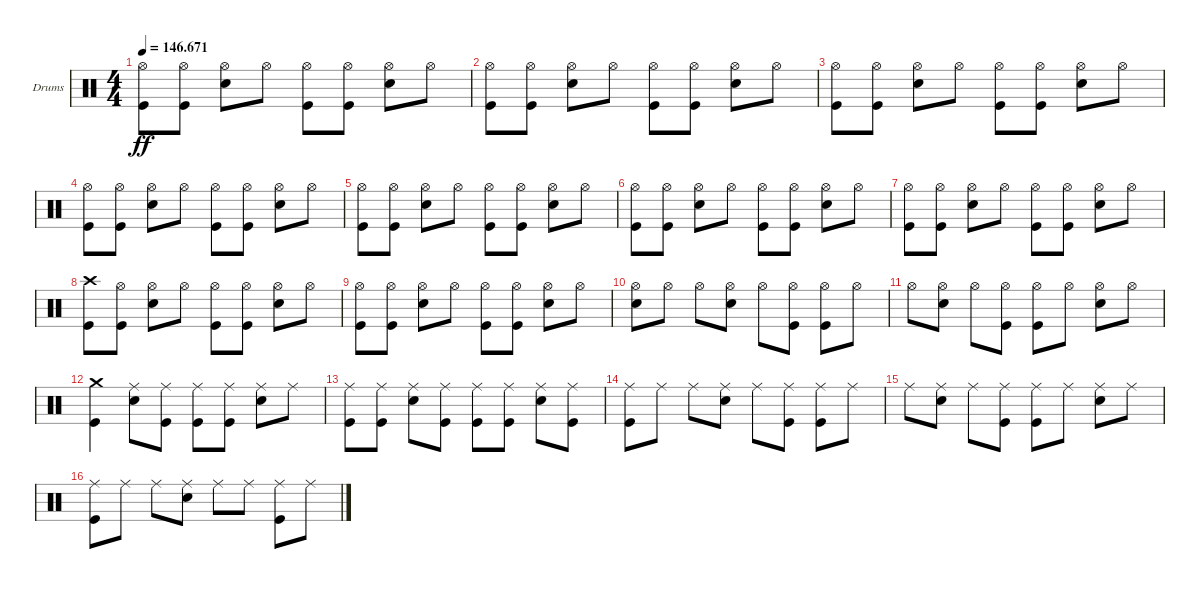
\bracketExtendMode groupsimilarinstruments
\firstSystemTrackNameOrientation horizontal
\otherSystemsTrackNameOrientation horizontal
\track ("Drumkit" "Drums") {instrument percussion}
\staff {score}
\articulation defaults
\ts (4 4)
\tempo
146.671
\accidentals auto
\clef neutral
\ottava regular
\simile none
\ks c
("Hi-Hat (open)" "Kick (hit)").8{dy ff} ("Hi-Hat (open)" "Kick (hit)").8 ("Hi-Hat (open)" "Snare (hit) 2").8 "Hi-Hat (open)".8 ("Hi-Hat (open)" "Kick (hit)").8 ("Hi-Hat (open)" "Kick (hit)").8 ("Hi-Hat (open)" "Snare (hit) 2").8 "Hi-Hat (open)".8 |
("Hi-Hat (open)" "Kick (hit)").8 ("Hi-Hat (open)" "Kick (hit)").8 ("Hi-Hat (open)" "Snare (hit) 2").8 "Hi-Hat (open)".8 ("Hi-Hat (open)" "Kick (hit)").8 ("Hi-Hat (open)" "Kick (hit)").8 ("Hi-Hat (open)" "Snare (hit) 2").8 "Hi-Hat (open)".8 |
("Hi-Hat (open)" "Kick (hit)").8 ("Hi-Hat (open)" "Kick (hit)").8 ("Hi-Hat (open)" "Snare (hit) 2").8 "Hi-Hat (open)".8 ("Hi-Hat (open)" "Kick (hit)").8 ("Hi-Hat (open)" "Kick (hit)").8 ("Hi-Hat (open)" "Snare (hit) 2").8 "Hi-Hat (open)".8 |
("Hi-Hat (open)" "Kick (hit)").8 ("Hi-Hat (open)" "Kick (hit)").8 ("Hi-Hat (open)" "Snare (hit) 2").8 "Hi-Hat (open)".8 ("Hi-Hat (open)" "Kick (hit)").8 ("Hi-Hat (open)" "Kick (hit)").8 ("Hi-Hat (open)" "Snare (hit) 2").8 "Hi-Hat (open)".8 |
("Hi-Hat (open)" "Kick (hit)").8 ("Hi-Hat (open)" "Kick (hit)").8 ("Hi-Hat (open)" "Snare (hit) 2").8 "Hi-Hat (open)".8 ("Hi-Hat (open)" "Kick (hit)").8 ("Hi-Hat (open)" "Kick (hit)").8 ("Hi-Hat (open)" "Snare (hit) 2").8 "Hi-Hat (open)".8 |
("Hi-Hat (open)" "Kick (hit)").8 ("Hi-Hat (open)" "Kick (hit)").8 ("Hi-Hat (open)" "Snare (hit) 2").8 "Hi-Hat (open)".8 ("Hi-Hat (open)" "Kick (hit)").8 ("Hi-Hat (open)" "Kick (hit)").8 ("Hi-Hat (open)" "Snare (hit) 2").8 "Hi-Hat (open)".8 |
("Hi-Hat (open)" "Kick (hit)").8 ("Hi-Hat (open)" "Kick (hit)").8 ("Hi-Hat (open)" "Snare (hit) 2").8 "Hi-Hat (open)".8 ("Hi-Hat (open)" "Kick (hit)").8 ("Hi-Hat (open)" "Kick (hit)").8 ("Hi-Hat (open)" "Snare (hit) 2").8 "Hi-Hat (open)".8 |
("Kick (hit)" "Crash high (hit)").8 ("Hi-Hat (open)" "Kick (hit)").8 ("Hi-Hat (open)" "Snare (hit) 2").8 "Hi-Hat (open)".8 ("Hi-Hat (open)" "Kick (hit)").8 ("Hi-Hat (open)" "Kick (hit)").8 ("Hi-Hat (open)" "Snare (hit) 2").8 "Hi-Hat (open)".8 |
("Hi-Hat (open)" "Kick (hit)").8 ("Hi-Hat (open)" "Kick (hit)").8 ("Hi-Hat (open)" "Snare (hit) 2").8 "Hi-Hat (open)".8 ("Hi-Hat (open)" "Kick (hit)").8 ("Hi-Hat (open)" "Kick (hit)").8 ("Hi-Hat (open)" "Snare (hit) 2").8 "Hi-Hat (open)".8 |
("Hi-Hat (open)" "Snare (hit) 2").8 "Hi-Hat (open)".8 "Hi-Hat (open)".8 ("Hi-Hat (open)" "Snare (hit) 2").8 "Hi-Hat (open)".8 ("Hi-Hat (open)" "Kick (hit)").8 ("Hi-Hat (open)" "Kick (hit)").8 "Hi-Hat (open)".8 |
"Hi-Hat (open)".8 ("Hi-Hat (open)" "Snare (hit) 2").8 "Hi-Hat (open)".8 ("Hi-Hat (open)" "Kick (hit)").8 ("Hi-Hat (open)" "Kick (hit)").8 "Hi-Hat (open)".8 ("Hi-Hat (open)" "Snare (hit) 2").8 "Hi-Hat (open)".8 |
("Crash medium (hit)" "Kick (hit)").4 ("Ride (middle)" "Snare (hit) 2").8 ("Ride (middle)" "Kick (hit)").8 ("Ride (middle)" "Kick (hit)").8 ("Ride (middle)" "Kick (hit)").8 ("Ride (middle)" "Snare (hit) 2").8 "Ride (middle)".8 |
("Ride (middle)" "Kick (hit)").8 ("Ride (middle)" "Kick (hit)").8 ("Ride (middle)" "Snare (hit) 2").8 ("Ride (middle)" "Kick (hit)").8 ("Ride (middle)" "Kick (hit)").8 ("Ride (middle)" "Kick (hit)").8 ("Ride (middle)" "Snare (hit) 2").8 ("Ride (middle)" "Kick (hit)").8 |
("Ride (middle)" "Kick (hit)").8 "Ride (middle)".8 "Ride (middle)".8 ("Ride (middle)" "Snare (hit) 2").8 "Ride (middle)".8 ("Ride (middle)" "Kick (hit)").8 ("Ride (middle)" "Kick (hit)").8 "Ride (middle)".8 |
"Ride (middle)".8 ("Ride (middle)" "Snare (hit) 2").8 "Ride (middle)".8 ("Ride (middle)" "Kick (hit)").8 ("Ride (middle)" "Kick (hit)").8 "Ride (middle)".8 ("Ride (middle)" "Snare (hit) 2").8 "Ride (middle)".8 |
("Ride (middle)" "Kick (hit)").8 "Ride (middle)".8 "Ride (middle)".8 ("Ride (middle)" "Snare (hit) 2").8 "Ride (middle)".8 "Ride (middle)".8 ("Ride (middle)" "Kick (hit)").8 "Ride (middle)".8
